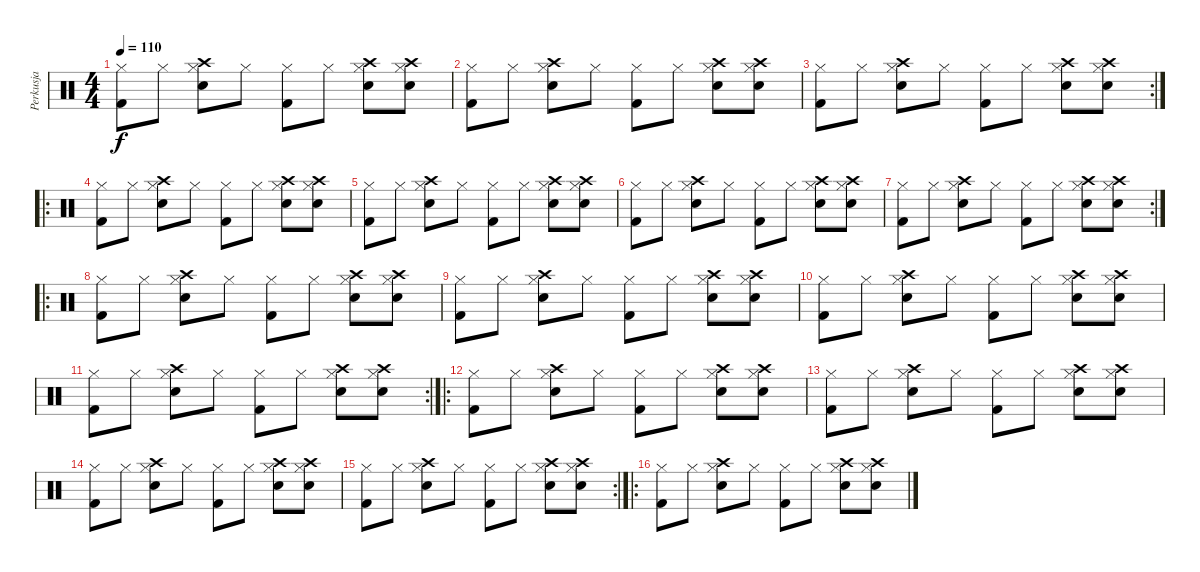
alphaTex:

\track ("Perkusja" "Perkusja") {instrument percussion}
\staff {score}
\articulation defaults
\ts (4 4)
\tempo 110
\clef neutral
\ks c
("Hi-Hat (closed)" "Kick (hit) 2").8{dy f} "Hi-Hat (closed)".8 ("Hi-Hat (closed)" "Electric Snare (hit)" "Crash high (hit)").8 "Hi-Hat (closed)".8 ("Hi-Hat (closed)" "Kick (hit) 2").8 "Hi-Hat (closed)".8 ("Hi-Hat (closed)" "Electric Snare (hit)" "Crash high (hit)").8 ("Hi-Hat (closed)" "Electric Snare (hit)" "Crash high (hit)").8 |
("Hi-Hat (closed)" "Kick (hit) 2").8 "Hi-Hat (closed)".8 ("Hi-Hat (closed)" "Electric Snare (hit)" "Crash high (hit)").8 "Hi-Hat (closed)".8 ("Hi-Hat (closed)" "Kick (hit) 2").8 "Hi-Hat (closed)".8 ("Hi-Hat (closed)" "Electric Snare (hit)" "Crash high (hit)").8 ("Hi-Hat (closed)" "Electric Snare (hit)" "Crash high (hit)").8 |
\rc 2
("Hi-Hat (closed)" "Kick (hit) 2").8 "Hi-Hat (closed)".8 ("Hi-Hat (closed)" "Electric Snare (hit)" "Crash high (hit)").8 "Hi-Hat (closed)".8 ("Hi-Hat (closed)" "Kick (hit) 2").8 "Hi-Hat (closed)".8 ("Hi-Hat (closed)" "Electric Snare (hit)" "Crash high (hit)").8 ("Hi-Hat (closed)" "Electric Snare (hit)" "Crash high (hit)").8 |
\ro
("Hi-Hat (closed)" "Kick (hit) 2").8 "Hi-Hat (closed)".8 ("Hi-Hat (closed)" "Electric Snare (hit)" "Crash high (hit)").8 "Hi-Hat (closed)".8 ("Hi-Hat (closed)" "Kick (hit) 2").8 "Hi-Hat (closed)".8 ("Hi-Hat (closed)" "Electric Snare (hit)" "Crash high (hit)").8 ("Hi-Hat (closed)" "Electric Snare (hit)" "Crash high (hit)").8 |
("Hi-Hat (closed)" "Kick (hit) 2").8 "Hi-Hat (closed)".8 ("Hi-Hat (closed)" "Electric Snare (hit)" "Crash high (hit)").8 "Hi-Hat (closed)".8 ("Hi-Hat (closed)" "Kick (hit) 2").8 "Hi-Hat (closed)".8 ("Hi-Hat (closed)" "Electric Snare (hit)" "Crash high (hit)").8 ("Hi-Hat (closed)" "Electric Snare (hit)" "Crash high (hit)").8 |
("Hi-Hat (closed)" "Kick (hit) 2").8 "Hi-Hat (closed)".8 ("Hi-Hat (closed)" "Electric Snare (hit)" "Crash high (hit)").8 "Hi-Hat (closed)".8 ("Hi-Hat (closed)" "Kick (hit) 2").8 "Hi-Hat (closed)".8 ("Hi-Hat (closed)" "Electric Snare (hit)" "Crash high (hit)").8 ("Hi-Hat (closed)" "Electric Snare (hit)" "Crash high (hit)").8 |
\rc 2
("Hi-Hat (closed)" "Kick (hit) 2").8 "Hi-Hat (closed)".8 ("Hi-Hat (closed)" "Electric Snare (hit)" "Crash high (hit)").8 "Hi-Hat (closed)".8 ("Hi-Hat (closed)" "Kick (hit) 2").8 "Hi-Hat (closed)".8 ("Hi-Hat (closed)" "Electric Snare (hit)" "Crash high (hit)").8 ("Hi-Hat (closed)" "Electric Snare (hit)" "Crash high (hit)").8 |
\ro
("Hi-Hat (closed)" "Kick (hit) 2").8 "Hi-Hat (closed)".8 ("Hi-Hat (closed)" "Electric Snare (hit)" "Crash high (hit)").8 "Hi-Hat (closed)".8 ("Hi-Hat (closed)" "Kick (hit) 2").8 "Hi-Hat (closed)".8 ("Hi-Hat (closed)" "Electric Snare (hit)" "Crash high (hit)").8 ("Hi-Hat (closed)" "Electric Snare (hit)" "Crash high (hit)").8 |
("Hi-Hat (closed)" "Kick (hit) 2").8 "Hi-Hat (closed)".8 ("Hi-Hat (closed)" "Electric Snare (hit)" "Crash high (hit)").8 "Hi-Hat (closed)".8 ("Hi-Hat (closed)" "Kick (hit) 2").8 "Hi-Hat (closed)".8 ("Hi-Hat (closed)" "Electric Snare (hit)" "Crash high (hit)").8 ("Hi-Hat (closed)" "Electric Snare (hit)" "Crash high (hit)").8 |
("Hi-Hat (closed)" "Kick (hit) 2").8 "Hi-Hat (closed)".8 ("Hi-Hat (closed)" "Electric Snare (hit)" "Crash high (hit)").8 "Hi-Hat (closed)".8 ("Hi-Hat (closed)" "Kick (hit) 2").8 "Hi-Hat (closed)".8 ("Hi-Hat (closed)" "Electric Snare (hit)" "Crash high (hit)").8 ("Hi-Hat (closed)" "Electric Snare (hit)" "Crash high (hit)").8 |
\rc 2
("Hi-Hat (closed)" "Kick (hit) 2").8 "Hi-Hat (closed)".8 ("Hi-Hat (closed)" "Electric Snare (hit)" "Crash high (hit)").8 "Hi-Hat (closed)".8 ("Hi-Hat (closed)" "Kick (hit) 2").8 "Hi-Hat (closed)".8 ("Hi-Hat (closed)" "Electric Snare (hit)" "Crash high (hit)").8 ("Hi-Hat (closed)" "Electric Snare (hit)" "Crash high (hit)").8 |
\ro
("Hi-Hat (closed)" "Kick (hit) 2").8 "Hi-Hat (closed)".8 ("Hi-Hat (closed)" "Electric Snare (hit)" "Crash high (hit)").8 "Hi-Hat (closed)".8 ("Hi-Hat (closed)" "Kick (hit) 2").8 "Hi-Hat (closed)".8 ("Hi-Hat (closed)" "Electric Snare (hit)" "Crash high (hit)").8 ("Hi-Hat (closed)" "Electric Snare (hit)" "Crash high (hit)").8 |
("Hi-Hat (closed)" "Kick (hit) 2").8 "Hi-Hat (closed)".8 ("Hi-Hat (closed)" "Electric Snare (hit)" "Crash high (hit)").8 "Hi-Hat (closed)".8 ("Hi-Hat (closed)" "Kick (hit) 2").8 "Hi-Hat (closed)".8 ("Hi-Hat (closed)" "Electric Snare (hit)" "Crash high (hit)").8 ("Hi-Hat (closed)" "Electric Snare (hit)" "Crash high (hit)").8 |
("Hi-Hat (closed)" "Kick (hit) 2").8 "Hi-Hat (closed)".8 ("Hi-Hat (closed)" "Electric Snare (hit)" "Crash high (hit)").8 "Hi-Hat (closed)".8 ("Hi-Hat (closed)" "Kick (hit) 2").8 "Hi-Hat (closed)".8 ("Hi-Hat (closed)" "Electric Snare (hit)" "Crash high (hit)").8 ("Hi-Hat (closed)" "Electric Snare (hit)" "Crash high (hit)").8 |
\rc 2
("Hi-Hat (closed)" "Kick (hit) 2").8 "Hi-Hat (closed)".8 ("Hi-Hat (closed)" "Electric Snare (hit)" "Crash high (hit)").8 "Hi-Hat (closed)".8 ("Hi-Hat (closed)" "Kick (hit) 2").8 "Hi-Hat (closed)".8 ("Hi-Hat (closed)" "Electric Snare (hit)" "Crash high (hit)").8 ("Hi-Hat (closed)" "Electric Snare (hit)" "Crash high (hit)").8 |
\ro
("Hi-Hat (closed)" "Kick (hit) 2").8 "Hi-Hat (closed)".8 ("Hi-Hat (closed)" "Electric Snare (hit)" "Crash high (hit)").8 "Hi-Hat (closed)".8 ("Hi-Hat (closed)" "Kick (hit) 2").8 "Hi-Hat (closed)".8 ("Hi-Hat (closed)" "Electric Snare (hit)" "Crash high (hit)").8 ("Hi-Hat (closed)" "Electric Snare (hit)" "Crash high (hit)").8
